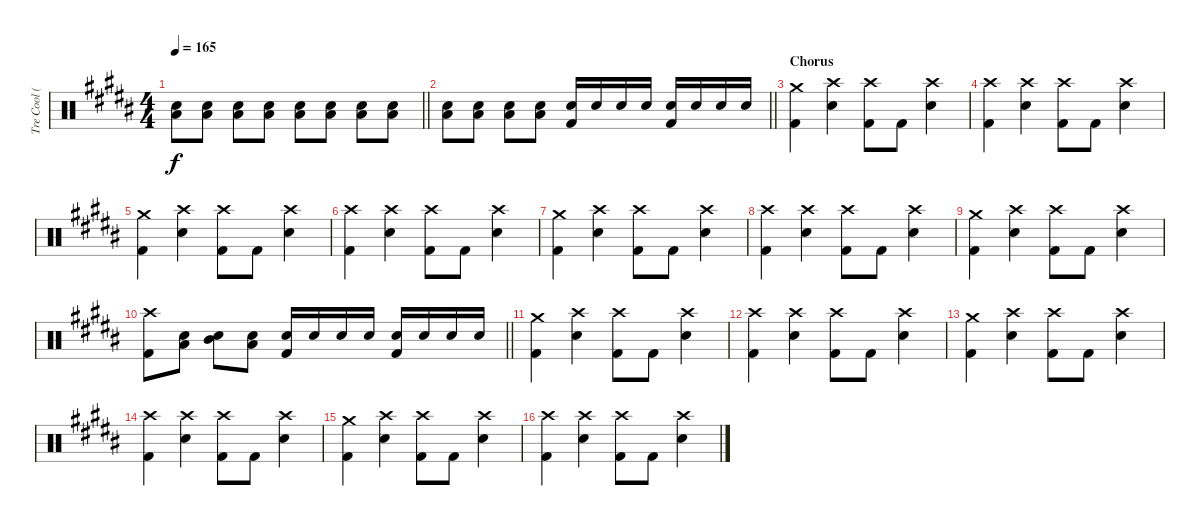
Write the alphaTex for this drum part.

\track ("Tre Cool (Drums)" "Tre Cool (") {instrument percussion}
\staff {score}
\articulation defaults
\ts (4 4)
\tempo 165
\clef neutral
\barLineRight lightlight
\ks b
("Low Tom (hit)" "Electric Snare (hit)").8{dy f} ("Low Tom (hit)" "Electric Snare (hit)").8 ("Low Tom (hit)" "Electric Snare (hit)").8 ("Low Tom (hit)" "Electric Snare (hit)").8 ("Low Tom (hit)" "Electric Snare (hit)").8 ("Low Tom (hit)" "Electric Snare (hit)").8 ("Low Tom (hit)" "Electric Snare (hit)").8 ("Low Tom (hit)" "Electric Snare (hit)").8 |
\barLineRight lightlight
("Low Tom (hit)" "Electric Snare (hit)").8 ("Low Tom (hit)" "Electric Snare (hit)").8 ("Low Tom (hit)" "Electric Snare (hit)").8 ("Low Tom (hit)" "Electric Snare (hit)").8 ("Electric Snare (hit)" "Kick (hit) 2").16 "Electric Snare (hit)".16 "Electric Snare (hit)".16 "Electric Snare (hit)".16 ("Electric Snare (hit)" "Kick (hit) 2").16 "Electric Snare (hit)".16 "Electric Snare (hit)".16 "Electric Snare (hit)".16 |
\section ("" "Chorus")
("Crash medium (hit)" "Kick (hit) 2").4 ("Crash high (hit)" "Electric Snare (hit)").4 ("Crash high (hit)" "Kick (hit) 2").8 "Kick (hit) 2".8 ("Crash high (hit)" "Electric Snare (hit)").4 |
("Crash high (hit)" "Kick (hit) 2").4 ("Crash high (hit)" "Electric Snare (hit)").4 ("Crash high (hit)" "Kick (hit) 2").8 "Kick (hit) 2".8 ("Crash high (hit)" "Electric Snare (hit)").4 |
("Crash medium (hit)" "Kick (hit) 2").4 ("Crash high (hit)" "Electric Snare (hit)").4 ("Crash high (hit)" "Kick (hit) 2").8 "Kick (hit) 2".8 ("Crash high (hit)" "Electric Snare (hit)").4 |
("Crash high (hit)" "Kick (hit) 2").4 ("Crash high (hit)" "Electric Snare (hit)").4 ("Crash high (hit)" "Kick (hit) 2").8 "Kick (hit) 2".8 ("Crash high (hit)" "Electric Snare (hit)").4 |
("Crash medium (hit)" "Kick (hit) 2").4 ("Crash high (hit)" "Electric Snare (hit)").4 ("Crash high (hit)" "Kick (hit) 2").8 "Kick (hit) 2".8 ("Crash high (hit)" "Electric Snare (hit)").4 |
("Crash high (hit)" "Kick (hit) 2").4 ("Crash high (hit)" "Electric Snare (hit)").4 ("Crash high (hit)" "Kick (hit) 2").8 "Kick (hit) 2".8 ("Crash high (hit)" "Electric Snare (hit)").4 |
("Crash medium (hit)" "Kick (hit) 2").4 ("Crash high (hit)" "Electric Snare (hit)").4 ("Crash high (hit)" "Kick (hit) 2").8 "Kick (hit) 2".8 ("Crash high (hit)" "Electric Snare (hit)").4 |
\barLineRight lightlight
("Crash high (hit)" "Kick (hit) 2").8 ("Low Tom (hit)" "Electric Snare (hit)").8 ("Mid Tom (hit)" "Electric Snare (hit)").8 ("Low Tom (hit)" "Electric Snare (hit)").8 ("Electric Snare (hit)" "Kick (hit) 2").16 "Electric Snare (hit)".16 "Electric Snare (hit)".16 "Electric Snare (hit)".16 ("Electric Snare (hit)" "Kick (hit) 2").16 "Electric Snare (hit)".16 "Electric Snare (hit)".16 "Electric Snare (hit)".16 |
("Crash medium (hit)" "Kick (hit) 2").4 ("Crash high (hit)" "Electric Snare (hit)").4 ("Crash high (hit)" "Kick (hit) 2").8 "Kick (hit) 2".8 ("Crash high (hit)" "Electric Snare (hit)").4 |
("Crash high (hit)" "Kick (hit) 2").4 ("Crash high (hit)" "Electric Snare (hit)").4 ("Crash high (hit)" "Kick (hit) 2").8 "Kick (hit) 2".8 ("Crash high (hit)" "Electric Snare (hit)").4 |
("Crash medium (hit)" "Kick (hit) 2").4 ("Crash high (hit)" "Electric Snare (hit)").4 ("Crash high (hit)" "Kick (hit) 2").8 "Kick (hit) 2".8 ("Crash high (hit)" "Electric Snare (hit)").4 |
("Crash high (hit)" "Kick (hit) 2").4 ("Crash high (hit)" "Electric Snare (hit)").4 ("Crash high (hit)" "Kick (hit) 2").8 "Kick (hit) 2".8 ("Crash high (hit)" "Electric Snare (hit)").4 |
("Crash medium (hit)" "Kick (hit) 2").4 ("Crash high (hit)" "Electric Snare (hit)").4 ("Crash high (hit)" "Kick (hit) 2").8 "Kick (hit) 2".8 ("Crash high (hit)" "Electric Snare (hit)").4 |
("Crash high (hit)" "Kick (hit) 2").4 ("Crash high (hit)" "Electric Snare (hit)").4 ("Crash high (hit)" "Kick (hit) 2").8 "Kick (hit) 2".8 ("Crash high (hit)" "Electric Snare (hit)").4
